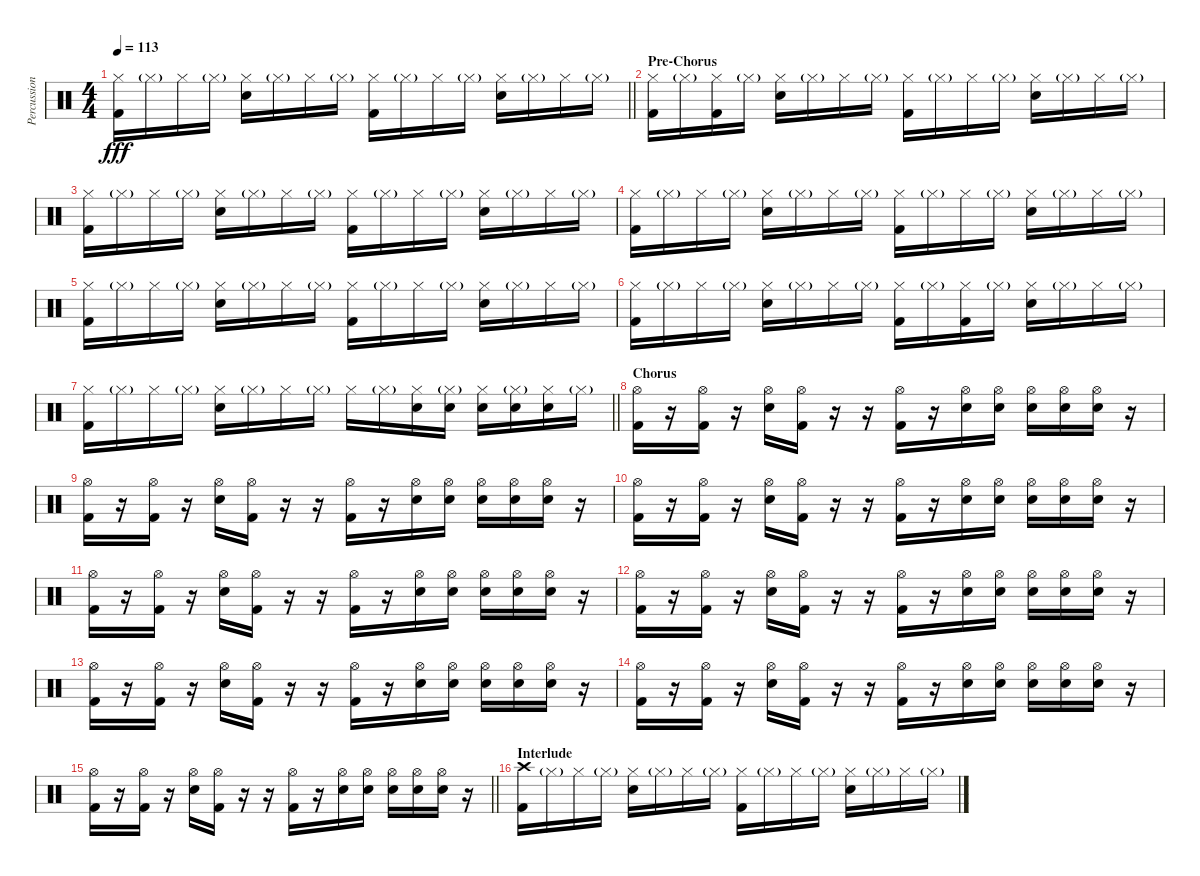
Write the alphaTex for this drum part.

\track ("Percussion" "Percussion") {instrument percussion}
\staff {score}
\articulation defaults
\ts (4 4)
\tempo 113
\clef neutral
\barLineRight lightlight
\ks c
("Hi-Hat (closed)" "Kick (hit) 2").16{dy fff} "Hi-Hat (closed)"{g}.16 "Hi-Hat (closed)".16 "Hi-Hat (closed)"{g}.16 ("Hi-Hat (closed)" "Electric Snare (hit)").16 "Hi-Hat (closed)"{g}.16 "Hi-Hat (closed)".16 "Hi-Hat (closed)"{g}.16 ("Hi-Hat (closed)" "Kick (hit) 2").16 "Hi-Hat (closed)"{g}.16 "Hi-Hat (closed)".16 "Hi-Hat (closed)"{g}.16 ("Hi-Hat (closed)" "Electric Snare (hit)").16 "Hi-Hat (closed)"{g}.16 "Hi-Hat (closed)".16 "Hi-Hat (closed)"{g}.16 |
\section ("" "Pre-Chorus")
("Hi-Hat (closed)" "Kick (hit) 2").16 "Hi-Hat (closed)"{g}.16 ("Hi-Hat (closed)" "Kick (hit) 2").16 "Hi-Hat (closed)"{g}.16 ("Hi-Hat (closed)" "Electric Snare (hit)").16 "Hi-Hat (closed)"{g}.16 "Hi-Hat (closed)".16 "Hi-Hat (closed)"{g}.16 ("Hi-Hat (closed)" "Kick (hit) 2").16 "Hi-Hat (closed)"{g}.16 "Hi-Hat (closed)".16 "Hi-Hat (closed)"{g}.16 ("Hi-Hat (closed)" "Electric Snare (hit)").16 "Hi-Hat (closed)"{g}.16 "Hi-Hat (closed)".16 "Hi-Hat (closed)"{g}.16 |
("Hi-Hat (closed)" "Kick (hit) 2").16 "Hi-Hat (closed)"{g}.16 "Hi-Hat (closed)".16 "Hi-Hat (closed)"{g}.16 ("Hi-Hat (closed)" "Electric Snare (hit)").16 "Hi-Hat (closed)"{g}.16 "Hi-Hat (closed)".16 "Hi-Hat (closed)"{g}.16 ("Hi-Hat (closed)" "Kick (hit) 2").16 "Hi-Hat (closed)"{g}.16 "Hi-Hat (closed)".16 "Hi-Hat (closed)"{g}.16 ("Hi-Hat (closed)" "Electric Snare (hit)").16 "Hi-Hat (closed)"{g}.16 "Hi-Hat (closed)".16 "Hi-Hat (closed)"{g}.16 |
("Hi-Hat (closed)" "Kick (hit) 2").16 "Hi-Hat (closed)"{g}.16 "Hi-Hat (closed)".16 "Hi-Hat (closed)"{g}.16 ("Hi-Hat (closed)" "Electric Snare (hit)").16 "Hi-Hat (closed)"{g}.16 "Hi-Hat (closed)".16 "Hi-Hat (closed)"{g}.16 ("Hi-Hat (closed)" "Kick (hit) 2").16 "Hi-Hat (closed)"{g}.16 "Hi-Hat (closed)".16 "Hi-Hat (closed)"{g}.16 ("Hi-Hat (closed)" "Electric Snare (hit)").16 "Hi-Hat (closed)"{g}.16 "Hi-Hat (closed)".16 "Hi-Hat (closed)"{g}.16 |
("Hi-Hat (closed)" "Kick (hit) 2").16 "Hi-Hat (closed)"{g}.16 "Hi-Hat (closed)".16 "Hi-Hat (closed)"{g}.16 ("Hi-Hat (closed)" "Electric Snare (hit)").16 "Hi-Hat (closed)"{g}.16 "Hi-Hat (closed)".16 "Hi-Hat (closed)"{g}.16 ("Hi-Hat (closed)" "Kick (hit) 2").16 "Hi-Hat (closed)"{g}.16 "Hi-Hat (closed)".16 "Hi-Hat (closed)"{g}.16 ("Hi-Hat (closed)" "Electric Snare (hit)").16 "Hi-Hat (closed)"{g}.16 "Hi-Hat (closed)".16 "Hi-Hat (closed)"{g}.16 |
("Hi-Hat (closed)" "Kick (hit) 2").16 "Hi-Hat (closed)"{g}.16 "Hi-Hat (closed)".16 "Hi-Hat (closed)"{g}.16 ("Hi-Hat (closed)" "Electric Snare (hit)").16 "Hi-Hat (closed)"{g}.16 "Hi-Hat (closed)".16 "Hi-Hat (closed)"{g}.16 ("Hi-Hat (closed)" "Kick (hit) 2").16 "Hi-Hat (closed)"{g}.16 ("Hi-Hat (closed)" "Kick (hit) 2").16 "Hi-Hat (closed)"{g}.16 ("Hi-Hat (closed)" "Electric Snare (hit)").16 "Hi-Hat (closed)"{g}.16 "Hi-Hat (closed)".16 "Hi-Hat (closed)"{g}.16 |
\barLineRight lightlight
("Hi-Hat (closed)" "Kick (hit) 2").16 "Hi-Hat (closed)"{g}.16 "Hi-Hat (closed)".16 "Hi-Hat (closed)"{g}.16 ("Hi-Hat (closed)" "Electric Snare (hit)").16 "Hi-Hat (closed)"{g}.16 "Hi-Hat (closed)".16 "Hi-Hat (closed)"{g}.16 "Hi-Hat (closed)".16 "Hi-Hat (closed)"{g}.16 ("Hi-Hat (closed)" "Electric Snare (hit)").16 ("Hi-Hat (closed)"{g} "Electric Snare (hit)").16 ("Hi-Hat (closed)" "Electric Snare (hit)").16 ("Hi-Hat (closed)"{g} "Electric Snare (hit)").16 ("Hi-Hat (closed)" "Electric Snare (hit)").16 "Hi-Hat (closed)"{g}.16 |
\section ("" "Chorus")
("Hi-Hat (open)" "Kick (hit) 2").16 r.16 ("Hi-Hat (open)" "Kick (hit) 2").16 r.16 ("Hi-Hat (open)" "Electric Snare (hit)").16 ("Hi-Hat (open)" "Kick (hit) 2").16 r.16 r.16 ("Hi-Hat (open)" "Kick (hit) 2").16 r.16 ("Hi-Hat (open)" "Electric Snare (hit)").16 ("Hi-Hat (open)" "Electric Snare (hit)").16 ("Hi-Hat (open)" "Electric Snare (hit)").16 ("Hi-Hat (open)" "Electric Snare (hit)").16 ("Hi-Hat (open)" "Electric Snare (hit)").16 r.16 |
("Hi-Hat (open)" "Kick (hit) 2").16 r.16 ("Hi-Hat (open)" "Kick (hit) 2").16 r.16 ("Hi-Hat (open)" "Electric Snare (hit)").16 ("Hi-Hat (open)" "Kick (hit) 2").16 r.16 r.16 ("Hi-Hat (open)" "Kick (hit) 2").16 r.16 ("Hi-Hat (open)" "Electric Snare (hit)").16 ("Hi-Hat (open)" "Electric Snare (hit)").16 ("Hi-Hat (open)" "Electric Snare (hit)").16 ("Hi-Hat (open)" "Electric Snare (hit)").16 ("Hi-Hat (open)" "Electric Snare (hit)").16 r.16 |
("Hi-Hat (open)" "Kick (hit) 2").16 r.16 ("Hi-Hat (open)" "Kick (hit) 2").16 r.16 ("Hi-Hat (open)" "Electric Snare (hit)").16 ("Hi-Hat (open)" "Kick (hit) 2").16 r.16 r.16 ("Hi-Hat (open)" "Kick (hit) 2").16 r.16 ("Hi-Hat (open)" "Electric Snare (hit)").16 ("Hi-Hat (open)" "Electric Snare (hit)").16 ("Hi-Hat (open)" "Electric Snare (hit)").16 ("Hi-Hat (open)" "Electric Snare (hit)").16 ("Hi-Hat (open)" "Electric Snare (hit)").16 r.16 |
("Hi-Hat (open)" "Kick (hit) 2").16 r.16 ("Hi-Hat (open)" "Kick (hit) 2").16 r.16 ("Hi-Hat (open)" "Electric Snare (hit)").16 ("Hi-Hat (open)" "Kick (hit) 2").16 r.16 r.16 ("Hi-Hat (open)" "Kick (hit) 2").16 r.16 ("Hi-Hat (open)" "Electric Snare (hit)").16 ("Hi-Hat (open)" "Electric Snare (hit)").16 ("Hi-Hat (open)" "Electric Snare (hit)").16 ("Hi-Hat (open)" "Electric Snare (hit)").16 ("Hi-Hat (open)" "Electric Snare (hit)").16 r.16 |
("Hi-Hat (open)" "Kick (hit) 2").16 r.16 ("Hi-Hat (open)" "Kick (hit) 2").16 r.16 ("Hi-Hat (open)" "Electric Snare (hit)").16 ("Hi-Hat (open)" "Kick (hit) 2").16 r.16 r.16 ("Hi-Hat (open)" "Kick (hit) 2").16 r.16 ("Hi-Hat (open)" "Electric Snare (hit)").16 ("Hi-Hat (open)" "Electric Snare (hit)").16 ("Hi-Hat (open)" "Electric Snare (hit)").16 ("Hi-Hat (open)" "Electric Snare (hit)").16 ("Hi-Hat (open)" "Electric Snare (hit)").16 r.16 |
("Hi-Hat (open)" "Kick (hit) 2").16 r.16 ("Hi-Hat (open)" "Kick (hit) 2").16 r.16 ("Hi-Hat (open)" "Electric Snare (hit)").16 ("Hi-Hat (open)" "Kick (hit) 2").16 r.16 r.16 ("Hi-Hat (open)" "Kick (hit) 2").16 r.16 ("Hi-Hat (open)" "Electric Snare (hit)").16 ("Hi-Hat (open)" "Electric Snare (hit)").16 ("Hi-Hat (open)" "Electric Snare (hit)").16 ("Hi-Hat (open)" "Electric Snare (hit)").16 ("Hi-Hat (open)" "Electric Snare (hit)").16 r.16 |
("Hi-Hat (open)" "Kick (hit) 2").16 r.16 ("Hi-Hat (open)" "Kick (hit) 2").16 r.16 ("Hi-Hat (open)" "Electric Snare (hit)").16 ("Hi-Hat (open)" "Kick (hit) 2").16 r.16 r.16 ("Hi-Hat (open)" "Kick (hit) 2").16 r.16 ("Hi-Hat (open)" "Electric Snare (hit)").16 ("Hi-Hat (open)" "Electric Snare (hit)").16 ("Hi-Hat (open)" "Electric Snare (hit)").16 ("Hi-Hat (open)" "Electric Snare (hit)").16 ("Hi-Hat (open)" "Electric Snare (hit)").16 r.16 |
\barLineRight lightlight
("Hi-Hat (open)" "Kick (hit) 2").16 r.16 ("Hi-Hat (open)" "Kick (hit) 2").16 r.16 ("Hi-Hat (open)" "Electric Snare (hit)").16 ("Hi-Hat (open)" "Kick (hit) 2").16 r.16 r.16 ("Hi-Hat (open)" "Kick (hit) 2").16 r.16 ("Hi-Hat (open)" "Electric Snare (hit)").16 ("Hi-Hat (open)" "Electric Snare (hit)").16 ("Hi-Hat (open)" "Electric Snare (hit)").16 ("Hi-Hat (open)" "Electric Snare (hit)").16 ("Hi-Hat (open)" "Electric Snare (hit)").16 r.16 |
\section ("" "Interlude")
("Crash high (hit)" "Kick (hit) 2").16 "Hi-Hat (closed)"{g}.16 "Hi-Hat (closed)".16 "Hi-Hat (closed)"{g}.16 ("Hi-Hat (closed)" "Electric Snare (hit)").16 "Hi-Hat (closed)"{g}.16 "Hi-Hat (closed)".16 "Hi-Hat (closed)"{g}.16 ("Hi-Hat (closed)" "Kick (hit) 2").16 "Hi-Hat (closed)"{g}.16 "Hi-Hat (closed)".16 "Hi-Hat (closed)"{g}.16 ("Hi-Hat (closed)" "Electric Snare (hit)").16 "Hi-Hat (closed)"{g}.16 "Hi-Hat (closed)".16 "Hi-Hat (closed)"{g}.16
